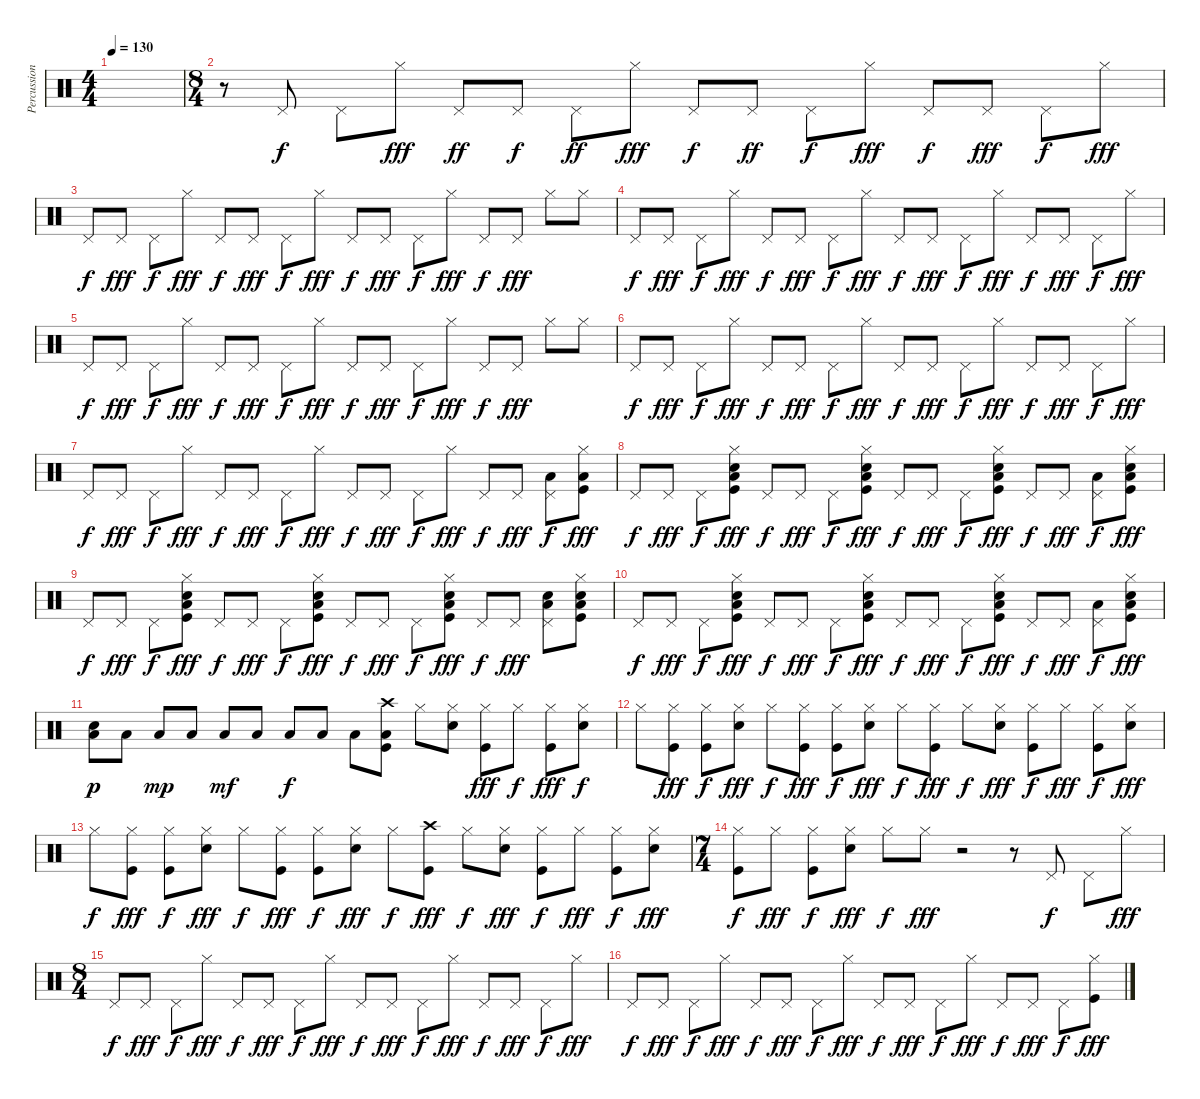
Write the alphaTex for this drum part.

\track ("Percussion" "Percussion") {instrument percussion}
\staff {score}
\articulation defaults
\ts (4 4)
\tempo 130
\clef neutral
\ks c
|
\ts (8 4)
r.8 "Pedal Hi-Hat (hit)".8 "Pedal Hi-Hat (hit)".8{dy f} "Hi-Hat (closed)".8{dy fff} "Pedal Hi-Hat (hit)".8{dy ff} "Pedal Hi-Hat (hit)".8{dy f} "Pedal Hi-Hat (hit)".8{dy ff} "Hi-Hat (closed)".8{dy fff} "Pedal Hi-Hat (hit)".8{dy f} "Pedal Hi-Hat (hit)".8{dy ff} "Pedal Hi-Hat (hit)".8{dy f} "Hi-Hat (closed)".8{dy fff} "Pedal Hi-Hat (hit)".8{dy f} "Pedal Hi-Hat (hit)".8{dy fff} "Pedal Hi-Hat (hit)".8{dy f} "Hi-Hat (closed)".8{dy fff} |
"Pedal Hi-Hat (hit)".8{dy f} "Pedal Hi-Hat (hit)".8{dy fff} "Pedal Hi-Hat (hit)".8{dy f} "Hi-Hat (closed)".8{dy fff} "Pedal Hi-Hat (hit)".8{dy f} "Pedal Hi-Hat (hit)".8{dy fff} "Pedal Hi-Hat (hit)".8{dy f} "Hi-Hat (closed)".8{dy fff} "Pedal Hi-Hat (hit)".8{dy f} "Pedal Hi-Hat (hit)".8{dy fff} "Pedal Hi-Hat (hit)".8{dy f} "Hi-Hat (closed)".8{dy fff} "Pedal Hi-Hat (hit)".8{dy f} "Pedal Hi-Hat (hit)".8{dy fff} "Hi-Hat (closed)".8 "Hi-Hat (closed)".8 |
"Pedal Hi-Hat (hit)".8{dy f} "Pedal Hi-Hat (hit)".8{dy fff} "Pedal Hi-Hat (hit)".8{dy f} "Hi-Hat (closed)".8{dy fff} "Pedal Hi-Hat (hit)".8{dy f} "Pedal Hi-Hat (hit)".8{dy fff} "Pedal Hi-Hat (hit)".8{dy f} "Hi-Hat (closed)".8{dy fff} "Pedal Hi-Hat (hit)".8{dy f} "Pedal Hi-Hat (hit)".8{dy fff} "Pedal Hi-Hat (hit)".8{dy f} "Hi-Hat (closed)".8{dy fff} "Pedal Hi-Hat (hit)".8{dy f} "Pedal Hi-Hat (hit)".8{dy fff} "Pedal Hi-Hat (hit)".8{dy f} "Hi-Hat (closed)".8{dy fff} |
"Pedal Hi-Hat (hit)".8{dy f} "Pedal Hi-Hat (hit)".8{dy fff} "Pedal Hi-Hat (hit)".8{dy f} "Hi-Hat (closed)".8{dy fff} "Pedal Hi-Hat (hit)".8{dy f} "Pedal Hi-Hat (hit)".8{dy fff} "Pedal Hi-Hat (hit)".8{dy f} "Hi-Hat (closed)".8{dy fff} "Pedal Hi-Hat (hit)".8{dy f} "Pedal Hi-Hat (hit)".8{dy fff} "Pedal Hi-Hat (hit)".8{dy f} "Hi-Hat (closed)".8{dy fff} "Pedal Hi-Hat (hit)".8{dy f} "Pedal Hi-Hat (hit)".8{dy fff} "Hi-Hat (closed)".8 "Hi-Hat (closed)".8 |
"Pedal Hi-Hat (hit)".8{dy f} "Pedal Hi-Hat (hit)".8{dy fff} "Pedal Hi-Hat (hit)".8{dy f} "Hi-Hat (closed)".8{dy fff} "Pedal Hi-Hat (hit)".8{dy f} "Pedal Hi-Hat (hit)".8{dy fff} "Pedal Hi-Hat (hit)".8{dy f} "Hi-Hat (closed)".8{dy fff} "Pedal Hi-Hat (hit)".8{dy f} "Pedal Hi-Hat (hit)".8{dy fff} "Pedal Hi-Hat (hit)".8{dy f} "Hi-Hat (closed)".8{dy fff} "Pedal Hi-Hat (hit)".8{dy f} "Pedal Hi-Hat (hit)".8{dy fff} "Pedal Hi-Hat (hit)".8{dy f} "Hi-Hat (closed)".8{dy fff} |
"Pedal Hi-Hat (hit)".8{dy f} "Pedal Hi-Hat (hit)".8{dy fff} "Pedal Hi-Hat (hit)".8{dy f} "Hi-Hat (closed)".8{dy fff} "Pedal Hi-Hat (hit)".8{dy f} "Pedal Hi-Hat (hit)".8{dy fff} "Pedal Hi-Hat (hit)".8{dy f} "Hi-Hat (closed)".8{dy fff} "Pedal Hi-Hat (hit)".8{dy f} "Pedal Hi-Hat (hit)".8{dy fff} "Pedal Hi-Hat (hit)".8{dy f} "Hi-Hat (closed)".8{dy fff} "Pedal Hi-Hat (hit)".8{dy f} "Pedal Hi-Hat (hit)".8{dy fff} ("Pedal Hi-Hat (hit)" "Low Tom (hit)").8{dy f} ("Hi-Hat (closed)" "Low Floor Tom (hit)" "Kick (hit)").8{dy fff} |
"Pedal Hi-Hat (hit)".8{dy f} "Pedal Hi-Hat (hit)".8{dy fff} "Pedal Hi-Hat (hit)".8{dy f} ("Hi-Hat (closed)" "Hand Clap (hit)" "Low Floor Tom (hit)" "Kick (hit)").8{dy fff} "Pedal Hi-Hat (hit)".8{dy f} "Pedal Hi-Hat (hit)".8{dy fff} "Pedal Hi-Hat (hit)".8{dy f} ("Hi-Hat (closed)" "Hand Clap (hit)" "Low Floor Tom (hit)" "Kick (hit)").8{dy fff} "Pedal Hi-Hat (hit)".8{dy f} "Pedal Hi-Hat (hit)".8{dy fff} "Pedal Hi-Hat (hit)".8{dy f} ("Hi-Hat (closed)" "Hand Clap (hit)" "Low Floor Tom (hit)" "Kick (hit)").8{dy fff} "Pedal Hi-Hat (hit)".8{dy f} "Pedal Hi-Hat (hit)".8{dy fff} ("Pedal Hi-Hat (hit)" "Low Tom (hit)").8{dy f} ("Hi-Hat (closed)" "Hand Clap (hit)" "Low Floor Tom (hit)" "Kick (hit)").8{dy fff} |
"Pedal Hi-Hat (hit)".8{dy f} "Pedal Hi-Hat (hit)".8{dy fff} "Pedal Hi-Hat (hit)".8{dy f} ("Hi-Hat (closed)" "Hand Clap (hit)" "Low Floor Tom (hit)" "Kick (hit)").8{dy fff} "Pedal Hi-Hat (hit)".8{dy f} "Pedal Hi-Hat (hit)".8{dy fff} "Pedal Hi-Hat (hit)".8{dy f} ("Hi-Hat (closed)" "Hand Clap (hit)" "Low Floor Tom (hit)" "Kick (hit)").8{dy fff} "Pedal Hi-Hat (hit)".8{dy f} "Pedal Hi-Hat (hit)".8{dy fff} "Pedal Hi-Hat (hit)".8{dy f} ("Hi-Hat (closed)" "Hand Clap (hit)" "Low Floor Tom (hit)" "Kick (hit)").8{dy fff} "Pedal Hi-Hat (hit)".8{dy f} "Pedal Hi-Hat (hit)".8{dy fff} ("Pedal Hi-Hat (hit)" "Hand Clap (hit)" "Low Tom (hit)").8 ("Hi-Hat (closed)" "Hand Clap (hit)" "Low Floor Tom (hit)" "Kick (hit)").8 |
"Pedal Hi-Hat (hit)".8{dy f} "Pedal Hi-Hat (hit)".8{dy fff} "Pedal Hi-Hat (hit)".8{dy f} ("Hi-Hat (closed)" "Hand Clap (hit)" "Low Floor Tom (hit)" "Kick (hit)").8{dy fff} "Pedal Hi-Hat (hit)".8{dy f} "Pedal Hi-Hat (hit)".8{dy fff} "Pedal Hi-Hat (hit)".8{dy f} ("Hi-Hat (closed)" "Hand Clap (hit)" "Low Floor Tom (hit)" "Kick (hit)").8{dy fff} "Pedal Hi-Hat (hit)".8{dy f} "Pedal Hi-Hat (hit)".8{dy fff} "Pedal Hi-Hat (hit)".8{dy f} ("Hi-Hat (closed)" "Hand Clap (hit)" "Low Floor Tom (hit)" "Kick (hit)").8{dy fff} "Pedal Hi-Hat (hit)".8{dy f} "Pedal Hi-Hat (hit)".8{dy fff} ("Pedal Hi-Hat (hit)" "Low Tom (hit)").8{dy f} ("Hi-Hat (closed)" "Hand Clap (hit)" "Low Floor Tom (hit)" "Kick (hit)").8{dy fff} |
("Hand Clap (hit)" "Low Floor Tom (hit)").8{dy p} "Low Floor Tom (hit)".8 "Low Floor Tom (hit)".8{dy mp} "Low Floor Tom (hit)".8 "Low Floor Tom (hit)".8{dy mf} "Low Floor Tom (hit)".8 "Low Floor Tom (hit)".8{dy f} "Low Floor Tom (hit)".8 "Low Floor Tom (hit)".8 ("Crash high (hit)" "Low Floor Tom (hit)" "Kick (hit)").8 "Hi-Hat (closed)".8 ("Hi-Hat (closed)" "Electric Snare (hit)").8 ("Hi-Hat (closed)" "Kick (hit)").8{dy fff} "Hi-Hat (closed)".8{dy f} ("Hi-Hat (closed)" "Kick (hit)").8{dy fff} ("Hi-Hat (closed)" "Electric Snare (hit)").8{dy f} |
"Hi-Hat (closed)".8 ("Hi-Hat (closed)" "Kick (hit)").8{dy fff} ("Hi-Hat (closed)" "Kick (hit)").8{dy f} ("Hi-Hat (closed)" "Electric Snare (hit)").8{dy fff} "Hi-Hat (closed)".8{dy f} ("Hi-Hat (closed)" "Kick (hit)").8{dy fff} ("Hi-Hat (closed)" "Kick (hit)").8{dy f} ("Hi-Hat (closed)" "Electric Snare (hit)").8{dy fff} "Hi-Hat (closed)".8{dy f} ("Hi-Hat (closed)" "Kick (hit)").8{dy fff} "Hi-Hat (closed)".8{dy f} ("Hi-Hat (closed)" "Electric Snare (hit)").8{dy fff} ("Hi-Hat (closed)" "Kick (hit)").8{dy f} "Hi-Hat (closed)".8{dy fff} ("Hi-Hat (closed)" "Kick (hit)").8{dy f} ("Hi-Hat (closed)" "Electric Snare (hit)").8{dy fff} |
"Hi-Hat (closed)".8{dy f} ("Hi-Hat (closed)" "Kick (hit)").8{dy fff} ("Hi-Hat (closed)" "Kick (hit)").8{dy f} ("Hi-Hat (closed)" "Electric Snare (hit)").8{dy fff} "Hi-Hat (closed)".8{dy f} ("Hi-Hat (closed)" "Kick (hit)").8{dy fff} ("Hi-Hat (closed)" "Kick (hit)").8{dy f} ("Hi-Hat (closed)" "Electric Snare (hit)").8{dy fff} "Hi-Hat (closed)".8{dy f} ("Crash high (hit)" "Kick (hit)").8{dy fff} "Hi-Hat (closed)".8{dy f} ("Hi-Hat (closed)" "Electric Snare (hit)").8{dy fff} ("Hi-Hat (closed)" "Kick (hit)").8{dy f} "Hi-Hat (closed)".8{dy fff} ("Hi-Hat (closed)" "Kick (hit)").8{dy f} ("Hi-Hat (closed)" "Electric Snare (hit)").8{dy fff} |
\ts (7 4)
("Hi-Hat (closed)" "Kick (hit)").8{dy f} "Hi-Hat (closed)".8{dy fff} ("Hi-Hat (closed)" "Kick (hit)").8{dy f} ("Hi-Hat (closed)" "Electric Snare (hit)").8{dy fff} "Hi-Hat (closed)".8{dy f} "Hi-Hat (closed)".8{dy fff} r.2 r.8 "Pedal Hi-Hat (hit)".8{dy f} "Pedal Hi-Hat (hit)".8 "Hi-Hat (closed)".8{dy fff} |
\ts (8 4)
"Pedal Hi-Hat (hit)".8{dy f} "Pedal Hi-Hat (hit)".8{dy fff} "Pedal Hi-Hat (hit)".8{dy f} "Hi-Hat (closed)".8{dy fff} "Pedal Hi-Hat (hit)".8{dy f} "Pedal Hi-Hat (hit)".8{dy fff} "Pedal Hi-Hat (hit)".8{dy f} "Hi-Hat (closed)".8{dy fff} "Pedal Hi-Hat (hit)".8{dy f} "Pedal Hi-Hat (hit)".8{dy fff} "Pedal Hi-Hat (hit)".8{dy f} "Hi-Hat (closed)".8{dy fff} "Pedal Hi-Hat (hit)".8{dy f} "Pedal Hi-Hat (hit)".8{dy fff} "Pedal Hi-Hat (hit)".8{dy f} "Hi-Hat (closed)".8{dy fff} |
"Pedal Hi-Hat (hit)".8{dy f} "Pedal Hi-Hat (hit)".8{dy fff} "Pedal Hi-Hat (hit)".8{dy f} "Hi-Hat (closed)".8{dy fff} "Pedal Hi-Hat (hit)".8{dy f} "Pedal Hi-Hat (hit)".8{dy fff} "Pedal Hi-Hat (hit)".8{dy f} "Hi-Hat (closed)".8{dy fff} "Pedal Hi-Hat (hit)".8{dy f} "Pedal Hi-Hat (hit)".8{dy fff} "Pedal Hi-Hat (hit)".8{dy f} "Hi-Hat (closed)".8{dy fff} "Pedal Hi-Hat (hit)".8{dy f} "Pedal Hi-Hat (hit)".8{dy fff} "Pedal Hi-Hat (hit)".8{dy f} ("Hi-Hat (closed)" "Kick (hit)").8{dy fff}
